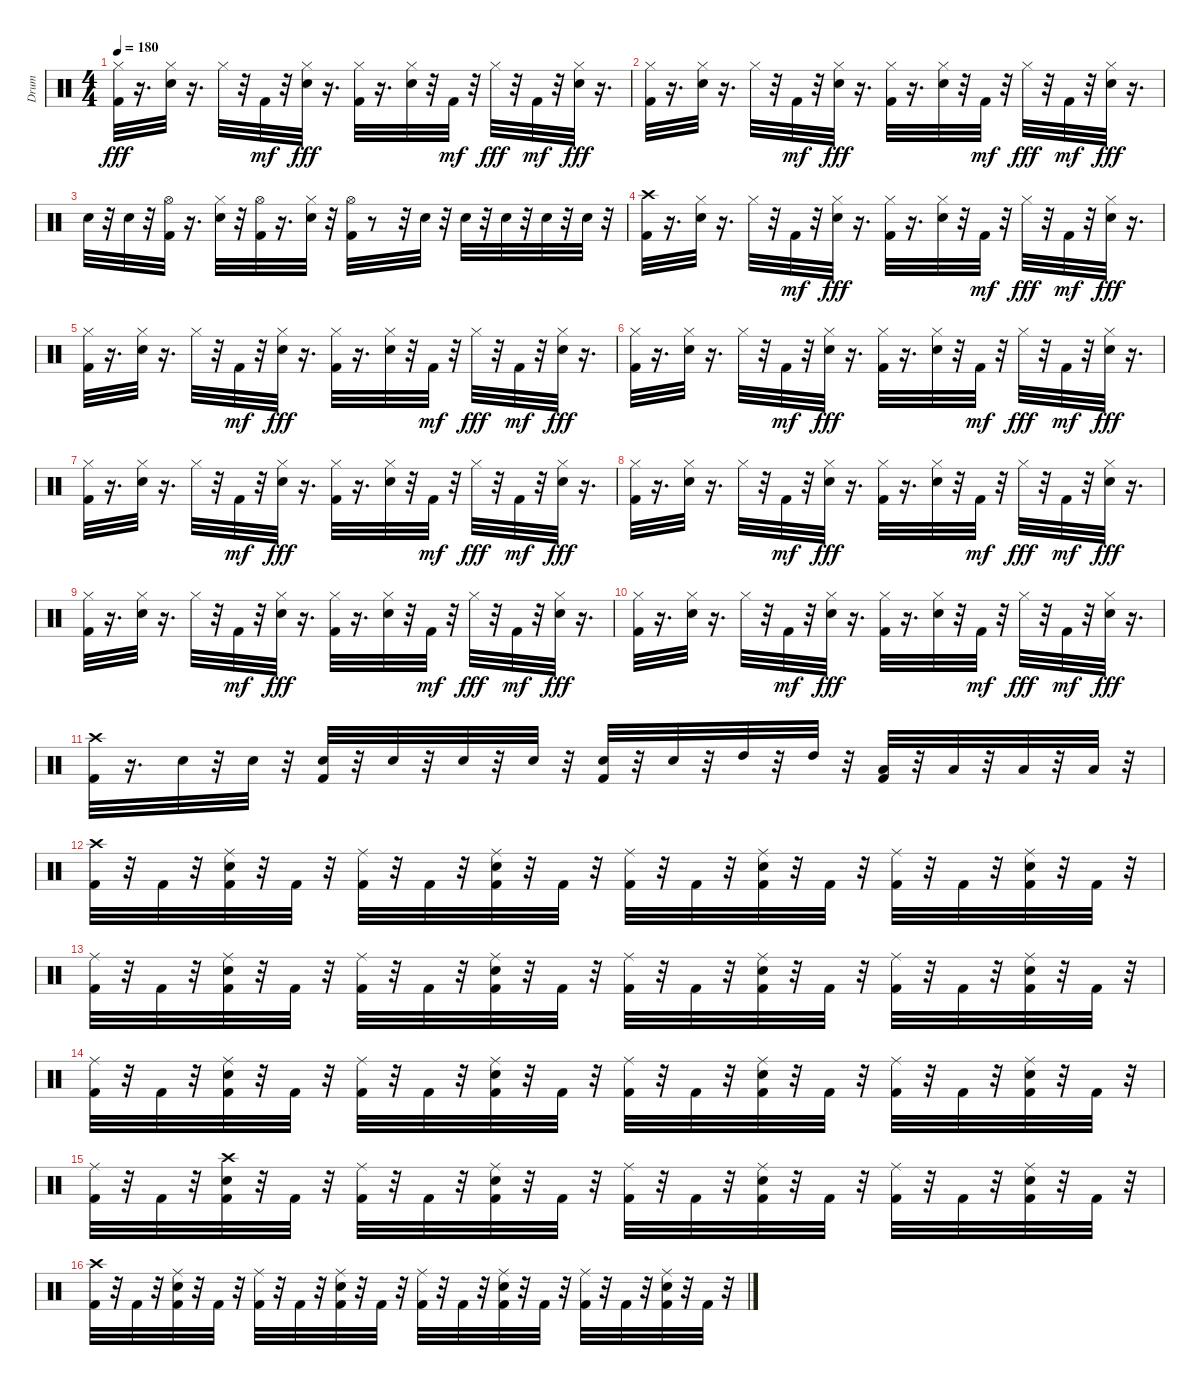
\track ("Drum" "Drum") {instrument percussion}
\staff {score}
\articulation defaults
\ts (4 4)
\tempo 180
\clef neutral
\ks c
("Kick (hit) 2" "Hi-Hat (closed)").32{dy fff} r.16{d} ("Hi-Hat (closed)" "Snare (hit) 2").32 r.16{d} "Hi-Hat (closed)".32 r.32 "Kick (hit) 2".32{dy mf} r.32 ("Hi-Hat (closed)" "Snare (hit) 2").32{dy fff} r.16{d} ("Kick (hit) 2" "Hi-Hat (closed)").32 r.16{d} ("Hi-Hat (closed)" "Snare (hit) 2").32 r.32 "Kick (hit) 2".32{dy mf} r.32 "Hi-Hat (closed)".32{dy fff} r.32 "Kick (hit) 2".32{dy mf} r.32 ("Hi-Hat (closed)" "Snare (hit) 2").32{dy fff} r.16{d} |
("Kick (hit) 2" "Hi-Hat (closed)").32 r.16{d} ("Hi-Hat (closed)" "Snare (hit) 2").32 r.16{d} "Hi-Hat (closed)".32 r.32 "Kick (hit) 2".32{dy mf} r.32 ("Hi-Hat (closed)" "Snare (hit) 2").32{dy fff} r.16{d} ("Kick (hit) 2" "Hi-Hat (closed)").32 r.16{d} ("Hi-Hat (closed)" "Snare (hit) 2").32 r.32 "Kick (hit) 2".32{dy mf} r.32 "Hi-Hat (closed)".32{dy fff} r.32 "Kick (hit) 2".32{dy mf} r.32 ("Hi-Hat (closed)" "Snare (hit) 2").32{dy fff} r.16{d} |
"Snare (hit) 2".32 r.32 "Snare (hit) 2".32 r.32 ("Kick (hit) 2" "Hi-Hat (open)").32 r.16{d} ("Snare (hit) 2" "Hi-Hat (closed)").32 r.32 ("Kick (hit) 2" "Hi-Hat (open)").32 r.16{d} ("Snare (hit) 2" "Hi-Hat (closed)").32 r.32 ("Kick (hit) 2" "Hi-Hat (open)").32 r.8 r.32 "Snare (hit) 2".32 r.32 "Snare (hit) 2".32 r.32 "Snare (hit) 2".32 r.32 "Snare (hit) 2".32 r.32 "Snare (hit) 2".32 r.32 |
("Kick (hit) 2" "Crash high (hit)").32 r.16{d} ("Hi-Hat (closed)" "Snare (hit) 2").32 r.16{d} "Hi-Hat (closed)".32 r.32 "Kick (hit) 2".32{dy mf} r.32 ("Hi-Hat (closed)" "Snare (hit) 2").32{dy fff} r.16{d} ("Kick (hit) 2" "Hi-Hat (closed)").32 r.16{d} ("Hi-Hat (closed)" "Snare (hit) 2").32 r.32 "Kick (hit) 2".32{dy mf} r.32 "Hi-Hat (closed)".32{dy fff} r.32 "Kick (hit) 2".32{dy mf} r.32 ("Hi-Hat (closed)" "Snare (hit) 2").32{dy fff} r.16{d} |
("Kick (hit) 2" "Hi-Hat (closed)").32 r.16{d} ("Hi-Hat (closed)" "Snare (hit) 2").32 r.16{d} "Hi-Hat (closed)".32 r.32 "Kick (hit) 2".32{dy mf} r.32 ("Hi-Hat (closed)" "Snare (hit) 2").32{dy fff} r.16{d} ("Kick (hit) 2" "Hi-Hat (closed)").32 r.16{d} ("Hi-Hat (closed)" "Snare (hit) 2").32 r.32 "Kick (hit) 2".32{dy mf} r.32 "Hi-Hat (closed)".32{dy fff} r.32 "Kick (hit) 2".32{dy mf} r.32 ("Hi-Hat (closed)" "Snare (hit) 2").32{dy fff} r.16{d} |
("Kick (hit) 2" "Hi-Hat (closed)").32 r.16{d} ("Hi-Hat (closed)" "Snare (hit) 2").32 r.16{d} "Hi-Hat (closed)".32 r.32 "Kick (hit) 2".32{dy mf} r.32 ("Hi-Hat (closed)" "Snare (hit) 2").32{dy fff} r.16{d} ("Kick (hit) 2" "Hi-Hat (closed)").32 r.16{d} ("Hi-Hat (closed)" "Snare (hit) 2").32 r.32 "Kick (hit) 2".32{dy mf} r.32 "Hi-Hat (closed)".32{dy fff} r.32 "Kick (hit) 2".32{dy mf} r.32 ("Hi-Hat (closed)" "Snare (hit) 2").32{dy fff} r.16{d} |
("Kick (hit) 2" "Hi-Hat (closed)").32 r.16{d} ("Hi-Hat (closed)" "Snare (hit) 2").32 r.16{d} "Hi-Hat (closed)".32 r.32 "Kick (hit) 2".32{dy mf} r.32 ("Hi-Hat (closed)" "Snare (hit) 2").32{dy fff} r.16{d} ("Kick (hit) 2" "Hi-Hat (closed)").32 r.16{d} ("Hi-Hat (closed)" "Snare (hit) 2").32 r.32 "Kick (hit) 2".32{dy mf} r.32 "Hi-Hat (closed)".32{dy fff} r.32 "Kick (hit) 2".32{dy mf} r.32 ("Hi-Hat (closed)" "Snare (hit) 2").32{dy fff} r.16{d} |
("Kick (hit) 2" "Hi-Hat (closed)").32 r.16{d} ("Hi-Hat (closed)" "Snare (hit) 2").32 r.16{d} "Hi-Hat (closed)".32 r.32 "Kick (hit) 2".32{dy mf} r.32 ("Hi-Hat (closed)" "Snare (hit) 2").32{dy fff} r.16{d} ("Kick (hit) 2" "Hi-Hat (closed)").32 r.16{d} ("Hi-Hat (closed)" "Snare (hit) 2").32 r.32 "Kick (hit) 2".32{dy mf} r.32 "Hi-Hat (closed)".32{dy fff} r.32 "Kick (hit) 2".32{dy mf} r.32 ("Hi-Hat (closed)" "Snare (hit) 2").32{dy fff} r.16{d} |
("Kick (hit) 2" "Hi-Hat (closed)").32 r.16{d} ("Hi-Hat (closed)" "Snare (hit) 2").32 r.16{d} "Hi-Hat (closed)".32 r.32 "Kick (hit) 2".32{dy mf} r.32 ("Hi-Hat (closed)" "Snare (hit) 2").32{dy fff} r.16{d} ("Kick (hit) 2" "Hi-Hat (closed)").32 r.16{d} ("Hi-Hat (closed)" "Snare (hit) 2").32 r.32 "Kick (hit) 2".32{dy mf} r.32 "Hi-Hat (closed)".32{dy fff} r.32 "Kick (hit) 2".32{dy mf} r.32 ("Hi-Hat (closed)" "Snare (hit) 2").32{dy fff} r.16{d} |
("Kick (hit) 2" "Hi-Hat (closed)").32 r.16{d} ("Hi-Hat (closed)" "Snare (hit) 2").32 r.16{d} "Hi-Hat (closed)".32 r.32 "Kick (hit) 2".32{dy mf} r.32 ("Hi-Hat (closed)" "Snare (hit) 2").32{dy fff} r.16{d} ("Kick (hit) 2" "Hi-Hat (closed)").32 r.16{d} ("Hi-Hat (closed)" "Snare (hit) 2").32 r.32 "Kick (hit) 2".32{dy mf} r.32 "Hi-Hat (closed)".32{dy fff} r.32 "Kick (hit) 2".32{dy mf} r.32 ("Hi-Hat (closed)" "Snare (hit) 2").32{dy fff} r.16{d} |
("Crash high (hit)" "Kick (hit) 2").32 r.16{d} "Snare (hit) 2".32 r.32 "Snare (hit) 2".32 r.32 ("Snare (hit) 2" "Kick (hit) 2").32 r.32 "Snare (hit) 2".32 r.32 "Snare (hit) 2".32 r.32 "Snare (hit) 2".32 r.32 ("Snare (hit) 2" "Kick (hit) 2").32 r.32 "Snare (hit) 2".32 r.32 "High Tom (hit)".32 r.32 "High Tom (hit)".32 r.32 ("Low Tom (hit)" "Kick (hit) 2").32 r.32 "Low Tom (hit)".32 r.32 "Low Floor Tom (hit)".32 r.32 "Low Floor Tom (hit)".32 r.32 |
("Kick (hit) 2" "Crash high (hit)").32 r.32 "Kick (hit) 2".32 r.32 ("Kick (hit) 2" "Ride (middle)" "Snare (hit) 2").32 r.32 "Kick (hit) 2".32 r.32 ("Kick (hit) 2" "Ride (middle)").32 r.32 "Kick (hit) 2".32 r.32 ("Kick (hit) 2" "Ride (middle)" "Snare (hit) 2").32 r.32 "Kick (hit) 2".32 r.32 ("Kick (hit) 2" "Ride (middle)").32 r.32 "Kick (hit) 2".32 r.32 ("Kick (hit) 2" "Ride (middle)" "Snare (hit) 2").32 r.32 "Kick (hit) 2".32 r.32 ("Kick (hit) 2" "Ride (middle)").32 r.32 "Kick (hit) 2".32 r.32 ("Kick (hit) 2" "Ride (middle)" "Snare (hit) 2").32 r.32 "Kick (hit) 2".32 r.32 |
("Kick (hit) 2" "Ride (middle)").32 r.32 "Kick (hit) 2".32 r.32 ("Kick (hit) 2" "Snare (hit) 2" "Ride (middle)").32 r.32 "Kick (hit) 2".32 r.32 ("Kick (hit) 2" "Ride (middle)").32 r.32 "Kick (hit) 2".32 r.32 ("Kick (hit) 2" "Snare (hit) 2" "Ride (middle)").32 r.32 "Kick (hit) 2".32 r.32 ("Kick (hit) 2" "Ride (middle)").32 r.32 "Kick (hit) 2".32 r.32 ("Kick (hit) 2" "Snare (hit) 2" "Ride (middle)").32 r.32 "Kick (hit) 2".32 r.32 ("Kick (hit) 2" "Ride (middle)").32 r.32 "Kick (hit) 2".32 r.32 ("Kick (hit) 2" "Snare (hit) 2" "Ride (middle)").32 r.32 "Kick (hit) 2".32 r.32 |
("Kick (hit) 2" "Ride (middle)").32 r.32 "Kick (hit) 2".32 r.32 ("Kick (hit) 2" "Snare (hit) 2" "Ride (middle)").32 r.32 "Kick (hit) 2".32 r.32 ("Kick (hit) 2" "Ride (middle)").32 r.32 "Kick (hit) 2".32 r.32 ("Kick (hit) 2" "Snare (hit) 2" "Ride (middle)").32 r.32 "Kick (hit) 2".32 r.32 ("Kick (hit) 2" "Ride (middle)").32 r.32 "Kick (hit) 2".32 r.32 ("Kick (hit) 2" "Snare (hit) 2" "Ride (middle)").32 r.32 "Kick (hit) 2".32 r.32 ("Kick (hit) 2" "Ride (middle)").32 r.32 "Kick (hit) 2".32 r.32 ("Kick (hit) 2" "Snare (hit) 2" "Ride (middle)").32 r.32 "Kick (hit) 2".32 r.32 |
("Kick (hit) 2" "Ride (middle)").32 r.32 "Kick (hit) 2".32 r.32 ("Kick (hit) 2" "Snare (hit) 2" "Crash high (hit)").32 r.32 "Kick (hit) 2".32 r.32 ("Kick (hit) 2" "Ride (middle)").32 r.32 "Kick (hit) 2".32 r.32 ("Kick (hit) 2" "Snare (hit) 2" "Ride (middle)").32 r.32 "Kick (hit) 2".32 r.32 ("Kick (hit) 2" "Ride (middle)").32 r.32 "Kick (hit) 2".32 r.32 ("Kick (hit) 2" "Snare (hit) 2" "Ride (middle)").32 r.32 "Kick (hit) 2".32 r.32 ("Kick (hit) 2" "Ride (middle)").32 r.32 "Kick (hit) 2".32 r.32 ("Kick (hit) 2" "Snare (hit) 2" "Ride (middle)").32 r.32 "Kick (hit) 2".32 r.32 |
("Kick (hit) 2" "Crash high (hit)").32 r.32 "Kick (hit) 2".32 r.32 ("Kick (hit) 2" "Ride (middle)" "Snare (hit) 2").32 r.32 "Kick (hit) 2".32 r.32 ("Kick (hit) 2" "Ride (middle)").32 r.32 "Kick (hit) 2".32 r.32 ("Kick (hit) 2" "Ride (middle)" "Snare (hit) 2").32 r.32 "Kick (hit) 2".32 r.32 ("Kick (hit) 2" "Ride (middle)").32 r.32 "Kick (hit) 2".32 r.32 ("Kick (hit) 2" "Ride (middle)" "Snare (hit) 2").32 r.32 "Kick (hit) 2".32 r.32 ("Kick (hit) 2" "Ride (middle)").32 r.32 "Kick (hit) 2".32 r.32 ("Kick (hit) 2" "Ride (middle)" "Snare (hit) 2").32 r.32 "Kick (hit) 2".32 r.32
